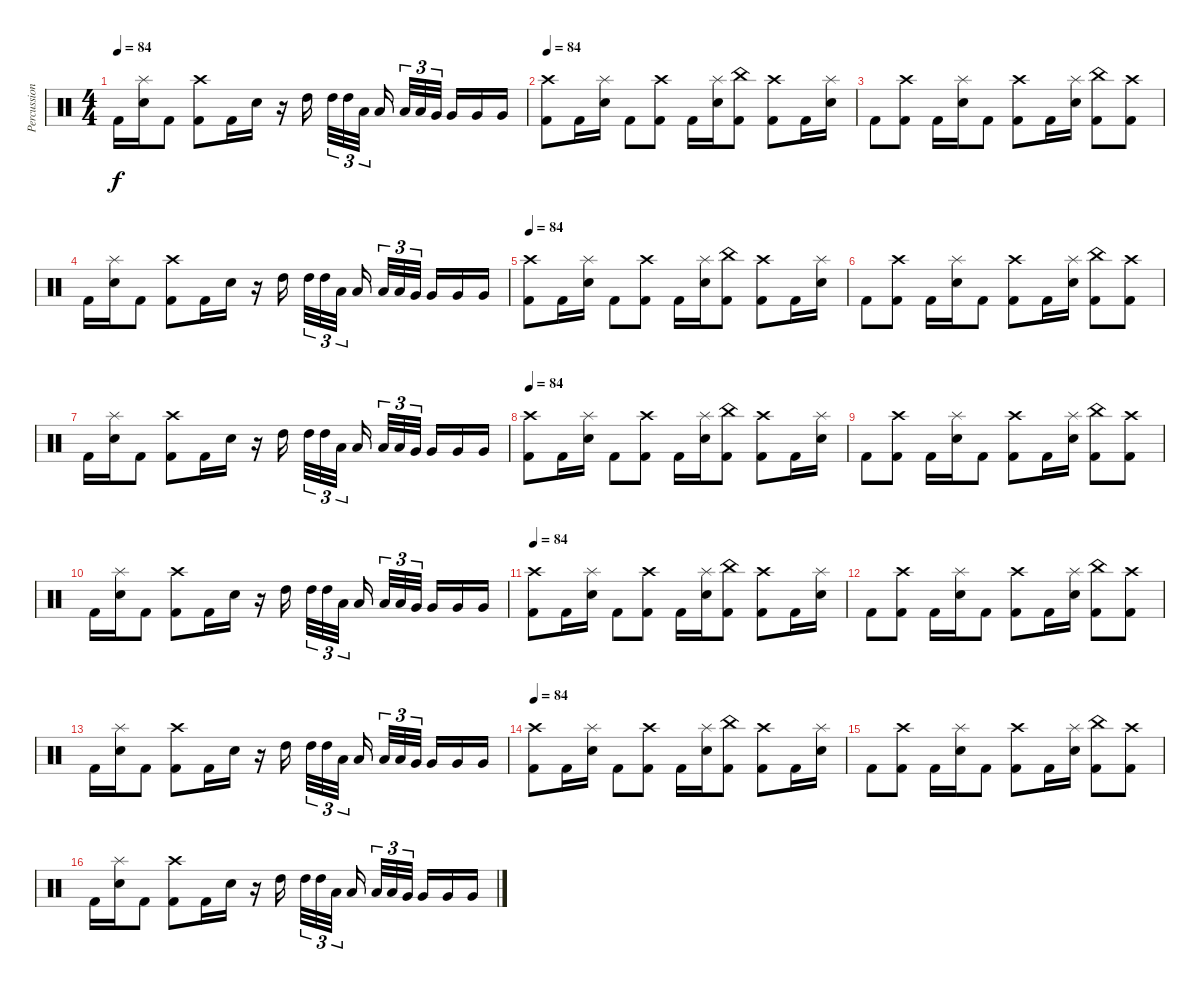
\track ("Percussion" "Percussion") {instrument percussion}
\staff {score}
\articulation defaults
\ts (4 4)
\tempo 84
\clef neutral
\ks c "Kick (hit) 2".16{dy f}
("Splash (hit)" "Electric Snare (hit)").16 "Kick (hit) 2".8 ("Crash high (hit)" "Kick (hit) 2").8 "Kick (hit) 2".16 "Electric Snare (hit)".16 r.16 "High Tom (hit)".16 "High Tom (hit)".32{tu (3 2)} "High Tom (hit)".32{tu (3 2)} "Low Tom (hit)".32{tu (3 2)} "Low Tom (hit)".16 "Low Tom (hit)".32{tu (3 2)} "Low Tom (hit)".32{tu (3 2)} "Very Low Tom (hit)".32{tu (3 2)} "Very Low Tom (hit)".16 "Very Low Tom (hit)".16 "Very Low Tom (hit)".16 |
\tempo 84
("Crash high (hit)" "Kick (hit) 2").8 "Kick (hit) 2".16 ("Splash (hit)" "Electric Snare (hit)").16 "Kick (hit) 2".8 ("Crash high (hit)" "Kick (hit) 2").8 "Kick (hit) 2".16 ("Splash (hit)" "Electric Snare (hit)").16 ("China (hit)" "Kick (hit) 2").8 ("Crash high (hit)" "Kick (hit) 2").8 "Kick (hit) 2".16 ("Splash (hit)" "Electric Snare (hit)").16 |
"Kick (hit) 2".8 ("Crash high (hit)" "Kick (hit) 2").8 "Kick (hit) 2".16 ("Splash (hit)" "Electric Snare (hit)").16 "Kick (hit) 2".8 ("Crash high (hit)" "Kick (hit) 2").8 "Kick (hit) 2".16 ("Splash (hit)" "Electric Snare (hit)").16 ("China (hit)" "Kick (hit) 2").8 ("Crash high (hit)" "Kick (hit) 2").8 |
"Kick (hit) 2".16 ("Splash (hit)" "Electric Snare (hit)").16 "Kick (hit) 2".8 ("Crash high (hit)" "Kick (hit) 2").8 "Kick (hit) 2".16 "Electric Snare (hit)".16 r.16 "High Tom (hit)".16 "High Tom (hit)".32{tu (3 2)} "High Tom (hit)".32{tu (3 2)} "Low Tom (hit)".32{tu (3 2)} "Low Tom (hit)".16 "Low Tom (hit)".32{tu (3 2)} "Low Tom (hit)".32{tu (3 2)} "Very Low Tom (hit)".32{tu (3 2)} "Very Low Tom (hit)".16 "Very Low Tom (hit)".16 "Very Low Tom (hit)".16 |
\tempo 84
("Crash high (hit)" "Kick (hit) 2").8 "Kick (hit) 2".16 ("Splash (hit)" "Electric Snare (hit)").16 "Kick (hit) 2".8 ("Crash high (hit)" "Kick (hit) 2").8 "Kick (hit) 2".16 ("Splash (hit)" "Electric Snare (hit)").16 ("China (hit)" "Kick (hit) 2").8 ("Crash high (hit)" "Kick (hit) 2").8 "Kick (hit) 2".16 ("Splash (hit)" "Electric Snare (hit)").16 |
"Kick (hit) 2".8 ("Crash high (hit)" "Kick (hit) 2").8 "Kick (hit) 2".16 ("Splash (hit)" "Electric Snare (hit)").16 "Kick (hit) 2".8 ("Crash high (hit)" "Kick (hit) 2").8 "Kick (hit) 2".16 ("Splash (hit)" "Electric Snare (hit)").16 ("China (hit)" "Kick (hit) 2").8 ("Crash high (hit)" "Kick (hit) 2").8 |
"Kick (hit) 2".16 ("Splash (hit)" "Electric Snare (hit)").16 "Kick (hit) 2".8 ("Crash high (hit)" "Kick (hit) 2").8 "Kick (hit) 2".16 "Electric Snare (hit)".16 r.16 "High Tom (hit)".16 "High Tom (hit)".32{tu (3 2)} "High Tom (hit)".32{tu (3 2)} "Low Tom (hit)".32{tu (3 2)} "Low Tom (hit)".16 "Low Tom (hit)".32{tu (3 2)} "Low Tom (hit)".32{tu (3 2)} "Very Low Tom (hit)".32{tu (3 2)} "Very Low Tom (hit)".16 "Very Low Tom (hit)".16 "Very Low Tom (hit)".16 |
\tempo 84
("Crash high (hit)" "Kick (hit) 2").8 "Kick (hit) 2".16 ("Splash (hit)" "Electric Snare (hit)").16 "Kick (hit) 2".8 ("Crash high (hit)" "Kick (hit) 2").8 "Kick (hit) 2".16 ("Splash (hit)" "Electric Snare (hit)").16 ("China (hit)" "Kick (hit) 2").8 ("Crash high (hit)" "Kick (hit) 2").8 "Kick (hit) 2".16 ("Splash (hit)" "Electric Snare (hit)").16 |
"Kick (hit) 2".8 ("Crash high (hit)" "Kick (hit) 2").8 "Kick (hit) 2".16 ("Splash (hit)" "Electric Snare (hit)").16 "Kick (hit) 2".8 ("Crash high (hit)" "Kick (hit) 2").8 "Kick (hit) 2".16 ("Splash (hit)" "Electric Snare (hit)").16 ("China (hit)" "Kick (hit) 2").8 ("Crash high (hit)" "Kick (hit) 2").8 |
"Kick (hit) 2".16 ("Splash (hit)" "Electric Snare (hit)").16 "Kick (hit) 2".8 ("Crash high (hit)" "Kick (hit) 2").8 "Kick (hit) 2".16 "Electric Snare (hit)".16 r.16 "High Tom (hit)".16 "High Tom (hit)".32{tu (3 2)} "High Tom (hit)".32{tu (3 2)} "Low Tom (hit)".32{tu (3 2)} "Low Tom (hit)".16 "Low Tom (hit)".32{tu (3 2)} "Low Tom (hit)".32{tu (3 2)} "Very Low Tom (hit)".32{tu (3 2)} "Very Low Tom (hit)".16 "Very Low Tom (hit)".16 "Very Low Tom (hit)".16 |
\tempo 84
("Crash high (hit)" "Kick (hit) 2").8 "Kick (hit) 2".16 ("Splash (hit)" "Electric Snare (hit)").16 "Kick (hit) 2".8 ("Crash high (hit)" "Kick (hit) 2").8 "Kick (hit) 2".16 ("Splash (hit)" "Electric Snare (hit)").16 ("China (hit)" "Kick (hit) 2").8 ("Crash high (hit)" "Kick (hit) 2").8 "Kick (hit) 2".16 ("Splash (hit)" "Electric Snare (hit)").16 |
"Kick (hit) 2".8 ("Crash high (hit)" "Kick (hit) 2").8 "Kick (hit) 2".16 ("Splash (hit)" "Electric Snare (hit)").16 "Kick (hit) 2".8 ("Crash high (hit)" "Kick (hit) 2").8 "Kick (hit) 2".16 ("Splash (hit)" "Electric Snare (hit)").16 ("China (hit)" "Kick (hit) 2").8 ("Crash high (hit)" "Kick (hit) 2").8 |
"Kick (hit) 2".16 ("Splash (hit)" "Electric Snare (hit)").16 "Kick (hit) 2".8 ("Crash high (hit)" "Kick (hit) 2").8 "Kick (hit) 2".16 "Electric Snare (hit)".16 r.16 "High Tom (hit)".16 "High Tom (hit)".32{tu (3 2)} "High Tom (hit)".32{tu (3 2)} "Low Tom (hit)".32{tu (3 2)} "Low Tom (hit)".16 "Low Tom (hit)".32{tu (3 2)} "Low Tom (hit)".32{tu (3 2)} "Very Low Tom (hit)".32{tu (3 2)} "Very Low Tom (hit)".16 "Very Low Tom (hit)".16 "Very Low Tom (hit)".16 |
\tempo 84
("Crash high (hit)" "Kick (hit) 2").8 "Kick (hit) 2".16 ("Splash (hit)" "Electric Snare (hit)").16 "Kick (hit) 2".8 ("Crash high (hit)" "Kick (hit) 2").8 "Kick (hit) 2".16 ("Splash (hit)" "Electric Snare (hit)").16 ("China (hit)" "Kick (hit) 2").8 ("Crash high (hit)" "Kick (hit) 2").8 "Kick (hit) 2".16 ("Splash (hit)" "Electric Snare (hit)").16 |
"Kick (hit) 2".8 ("Crash high (hit)" "Kick (hit) 2").8 "Kick (hit) 2".16 ("Splash (hit)" "Electric Snare (hit)").16 "Kick (hit) 2".8 ("Crash high (hit)" "Kick (hit) 2").8 "Kick (hit) 2".16 ("Splash (hit)" "Electric Snare (hit)").16 ("China (hit)" "Kick (hit) 2").8 ("Crash high (hit)" "Kick (hit) 2").8 |
"Kick (hit) 2".16 ("Splash (hit)" "Electric Snare (hit)").16 "Kick (hit) 2".8 ("Crash high (hit)" "Kick (hit) 2").8 "Kick (hit) 2".16 "Electric Snare (hit)".16 r.16 "High Tom (hit)".16 "High Tom (hit)".32{tu (3 2)} "High Tom (hit)".32{tu (3 2)} "Low Tom (hit)".32{tu (3 2)} "Low Tom (hit)".16 "Low Tom (hit)".32{tu (3 2)} "Low Tom (hit)".32{tu (3 2)} "Very Low Tom (hit)".32{tu (3 2)} "Very Low Tom (hit)".16 "Very Low Tom (hit)".16 "Very Low Tom (hit)".16
